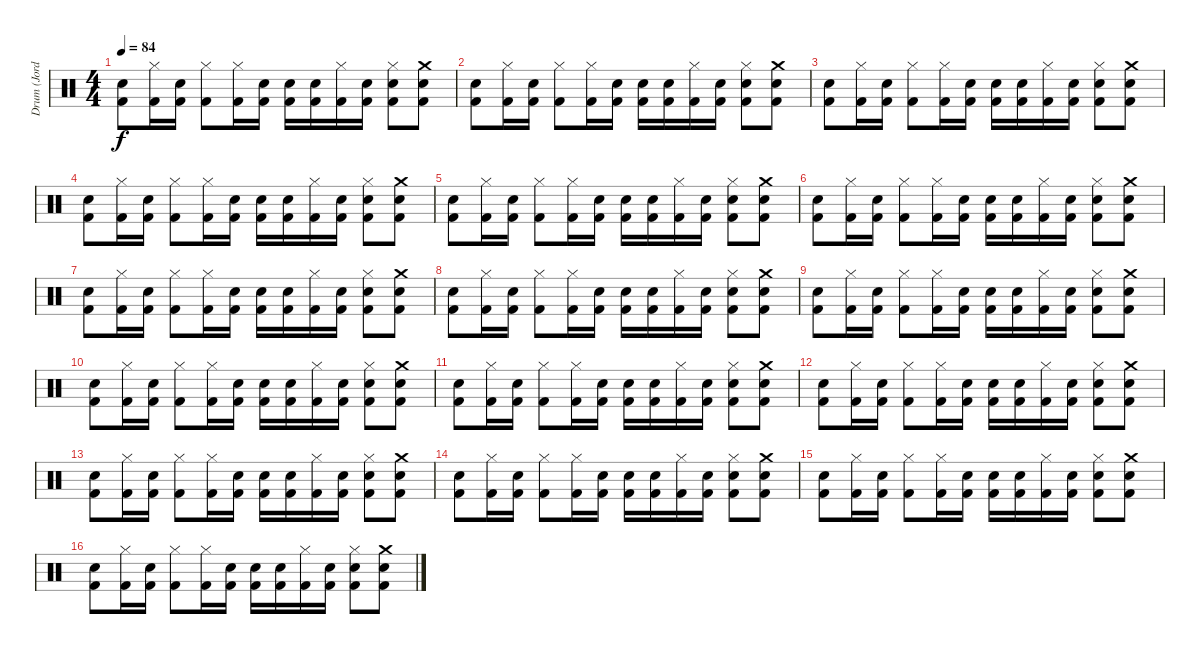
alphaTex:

\track ("Drum (Jordan)" "Drum (Jord") {instrument percussion}
\staff {score}
\articulation defaults
\ts (4 4)
\tempo 84
\clef neutral
\ks c
("Kick (hit) 2" "Electric Snare (hit)").8{dy f} ("Kick (hit) 2" "Hi-Hat (closed)").16 ("Kick (hit) 2" "Electric Snare (hit)").16 ("Kick (hit) 2" "Hi-Hat (closed)").8 ("Kick (hit) 2" "Hi-Hat (closed)").16 ("Kick (hit) 2" "Electric Snare (hit)").16 ("Kick (hit) 2" "Electric Snare (hit)").16 ("Kick (hit) 2" "Electric Snare (hit)").16 ("Kick (hit) 2" "Hi-Hat (closed)").16 ("Kick (hit) 2" "Electric Snare (hit)").16 ("Kick (hit) 2" "Electric Snare (hit)" "Hi-Hat (closed)").8 ("Kick (hit) 2" "Electric Snare (hit)" "Crash medium (hit)").8 |
("Kick (hit) 2" "Electric Snare (hit)").8 ("Kick (hit) 2" "Hi-Hat (closed)").16 ("Kick (hit) 2" "Electric Snare (hit)").16 ("Kick (hit) 2" "Hi-Hat (closed)").8 ("Kick (hit) 2" "Hi-Hat (closed)").16 ("Kick (hit) 2" "Electric Snare (hit)").16 ("Kick (hit) 2" "Electric Snare (hit)").16 ("Kick (hit) 2" "Electric Snare (hit)").16 ("Kick (hit) 2" "Hi-Hat (closed)").16 ("Kick (hit) 2" "Electric Snare (hit)").16 ("Kick (hit) 2" "Electric Snare (hit)" "Hi-Hat (closed)").8 ("Kick (hit) 2" "Electric Snare (hit)" "Crash medium (hit)").8 |
("Kick (hit) 2" "Electric Snare (hit)").8 ("Kick (hit) 2" "Hi-Hat (closed)").16 ("Kick (hit) 2" "Electric Snare (hit)").16 ("Kick (hit) 2" "Hi-Hat (closed)").8 ("Kick (hit) 2" "Hi-Hat (closed)").16 ("Kick (hit) 2" "Electric Snare (hit)").16 ("Kick (hit) 2" "Electric Snare (hit)").16 ("Kick (hit) 2" "Electric Snare (hit)").16 ("Kick (hit) 2" "Hi-Hat (closed)").16 ("Kick (hit) 2" "Electric Snare (hit)").16 ("Kick (hit) 2" "Electric Snare (hit)" "Hi-Hat (closed)").8 ("Kick (hit) 2" "Electric Snare (hit)" "Crash medium (hit)").8 |
("Kick (hit) 2" "Electric Snare (hit)").8 ("Kick (hit) 2" "Hi-Hat (closed)").16 ("Kick (hit) 2" "Electric Snare (hit)").16 ("Kick (hit) 2" "Hi-Hat (closed)").8 ("Kick (hit) 2" "Hi-Hat (closed)").16 ("Kick (hit) 2" "Electric Snare (hit)").16 ("Kick (hit) 2" "Electric Snare (hit)").16 ("Kick (hit) 2" "Electric Snare (hit)").16 ("Kick (hit) 2" "Hi-Hat (closed)").16 ("Kick (hit) 2" "Electric Snare (hit)").16 ("Kick (hit) 2" "Electric Snare (hit)" "Hi-Hat (closed)").8 ("Kick (hit) 2" "Electric Snare (hit)" "Crash medium (hit)").8 |
("Kick (hit) 2" "Electric Snare (hit)").8 ("Kick (hit) 2" "Hi-Hat (closed)").16 ("Kick (hit) 2" "Electric Snare (hit)").16 ("Kick (hit) 2" "Hi-Hat (closed)").8 ("Kick (hit) 2" "Hi-Hat (closed)").16 ("Kick (hit) 2" "Electric Snare (hit)").16 ("Kick (hit) 2" "Electric Snare (hit)").16 ("Kick (hit) 2" "Electric Snare (hit)").16 ("Kick (hit) 2" "Hi-Hat (closed)").16 ("Kick (hit) 2" "Electric Snare (hit)").16 ("Kick (hit) 2" "Electric Snare (hit)" "Hi-Hat (closed)").8 ("Kick (hit) 2" "Electric Snare (hit)" "Crash medium (hit)").8 |
("Kick (hit) 2" "Electric Snare (hit)").8 ("Kick (hit) 2" "Hi-Hat (closed)").16 ("Kick (hit) 2" "Electric Snare (hit)").16 ("Kick (hit) 2" "Hi-Hat (closed)").8 ("Kick (hit) 2" "Hi-Hat (closed)").16 ("Kick (hit) 2" "Electric Snare (hit)").16 ("Kick (hit) 2" "Electric Snare (hit)").16 ("Kick (hit) 2" "Electric Snare (hit)").16 ("Kick (hit) 2" "Hi-Hat (closed)").16 ("Kick (hit) 2" "Electric Snare (hit)").16 ("Kick (hit) 2" "Electric Snare (hit)" "Hi-Hat (closed)").8 ("Kick (hit) 2" "Electric Snare (hit)" "Crash medium (hit)").8 |
("Kick (hit) 2" "Electric Snare (hit)").8 ("Kick (hit) 2" "Hi-Hat (closed)").16 ("Kick (hit) 2" "Electric Snare (hit)").16 ("Kick (hit) 2" "Hi-Hat (closed)").8 ("Kick (hit) 2" "Hi-Hat (closed)").16 ("Kick (hit) 2" "Electric Snare (hit)").16 ("Kick (hit) 2" "Electric Snare (hit)").16 ("Kick (hit) 2" "Electric Snare (hit)").16 ("Kick (hit) 2" "Hi-Hat (closed)").16 ("Kick (hit) 2" "Electric Snare (hit)").16 ("Kick (hit) 2" "Electric Snare (hit)" "Hi-Hat (closed)").8 ("Kick (hit) 2" "Electric Snare (hit)" "Crash medium (hit)").8 |
("Kick (hit) 2" "Electric Snare (hit)").8 ("Kick (hit) 2" "Hi-Hat (closed)").16 ("Kick (hit) 2" "Electric Snare (hit)").16 ("Kick (hit) 2" "Hi-Hat (closed)").8 ("Kick (hit) 2" "Hi-Hat (closed)").16 ("Kick (hit) 2" "Electric Snare (hit)").16 ("Kick (hit) 2" "Electric Snare (hit)").16 ("Kick (hit) 2" "Electric Snare (hit)").16 ("Kick (hit) 2" "Hi-Hat (closed)").16 ("Kick (hit) 2" "Electric Snare (hit)").16 ("Kick (hit) 2" "Electric Snare (hit)" "Hi-Hat (closed)").8 ("Kick (hit) 2" "Electric Snare (hit)" "Crash medium (hit)").8 |
("Kick (hit) 2" "Electric Snare (hit)").8 ("Kick (hit) 2" "Hi-Hat (closed)").16 ("Kick (hit) 2" "Electric Snare (hit)").16 ("Kick (hit) 2" "Hi-Hat (closed)").8 ("Kick (hit) 2" "Hi-Hat (closed)").16 ("Kick (hit) 2" "Electric Snare (hit)").16 ("Kick (hit) 2" "Electric Snare (hit)").16 ("Kick (hit) 2" "Electric Snare (hit)").16 ("Kick (hit) 2" "Hi-Hat (closed)").16 ("Kick (hit) 2" "Electric Snare (hit)").16 ("Kick (hit) 2" "Electric Snare (hit)" "Hi-Hat (closed)").8 ("Kick (hit) 2" "Electric Snare (hit)" "Crash medium (hit)").8 |
("Kick (hit) 2" "Electric Snare (hit)").8 ("Kick (hit) 2" "Hi-Hat (closed)").16 ("Kick (hit) 2" "Electric Snare (hit)").16 ("Kick (hit) 2" "Hi-Hat (closed)").8 ("Kick (hit) 2" "Hi-Hat (closed)").16 ("Kick (hit) 2" "Electric Snare (hit)").16 ("Kick (hit) 2" "Electric Snare (hit)").16 ("Kick (hit) 2" "Electric Snare (hit)").16 ("Kick (hit) 2" "Hi-Hat (closed)").16 ("Kick (hit) 2" "Electric Snare (hit)").16 ("Kick (hit) 2" "Electric Snare (hit)" "Hi-Hat (closed)").8 ("Kick (hit) 2" "Electric Snare (hit)" "Crash medium (hit)").8 |
("Kick (hit) 2" "Electric Snare (hit)").8 ("Kick (hit) 2" "Hi-Hat (closed)").16 ("Kick (hit) 2" "Electric Snare (hit)").16 ("Kick (hit) 2" "Hi-Hat (closed)").8 ("Kick (hit) 2" "Hi-Hat (closed)").16 ("Kick (hit) 2" "Electric Snare (hit)").16 ("Kick (hit) 2" "Electric Snare (hit)").16 ("Kick (hit) 2" "Electric Snare (hit)").16 ("Kick (hit) 2" "Hi-Hat (closed)").16 ("Kick (hit) 2" "Electric Snare (hit)").16 ("Kick (hit) 2" "Electric Snare (hit)" "Hi-Hat (closed)").8 ("Kick (hit) 2" "Electric Snare (hit)" "Crash medium (hit)").8 |
("Kick (hit) 2" "Electric Snare (hit)").8 ("Kick (hit) 2" "Hi-Hat (closed)").16 ("Kick (hit) 2" "Electric Snare (hit)").16 ("Kick (hit) 2" "Hi-Hat (closed)").8 ("Kick (hit) 2" "Hi-Hat (closed)").16 ("Kick (hit) 2" "Electric Snare (hit)").16 ("Kick (hit) 2" "Electric Snare (hit)").16 ("Kick (hit) 2" "Electric Snare (hit)").16 ("Kick (hit) 2" "Hi-Hat (closed)").16 ("Kick (hit) 2" "Electric Snare (hit)").16 ("Kick (hit) 2" "Electric Snare (hit)" "Hi-Hat (closed)").8 ("Kick (hit) 2" "Electric Snare (hit)" "Crash medium (hit)").8 |
("Kick (hit) 2" "Electric Snare (hit)").8 ("Kick (hit) 2" "Hi-Hat (closed)").16 ("Kick (hit) 2" "Electric Snare (hit)").16 ("Kick (hit) 2" "Hi-Hat (closed)").8 ("Kick (hit) 2" "Hi-Hat (closed)").16 ("Kick (hit) 2" "Electric Snare (hit)").16 ("Kick (hit) 2" "Electric Snare (hit)").16 ("Kick (hit) 2" "Electric Snare (hit)").16 ("Kick (hit) 2" "Hi-Hat (closed)").16 ("Kick (hit) 2" "Electric Snare (hit)").16 ("Kick (hit) 2" "Electric Snare (hit)" "Hi-Hat (closed)").8 ("Kick (hit) 2" "Electric Snare (hit)" "Crash medium (hit)").8 |
("Kick (hit) 2" "Electric Snare (hit)").8 ("Kick (hit) 2" "Hi-Hat (closed)").16 ("Kick (hit) 2" "Electric Snare (hit)").16 ("Kick (hit) 2" "Hi-Hat (closed)").8 ("Kick (hit) 2" "Hi-Hat (closed)").16 ("Kick (hit) 2" "Electric Snare (hit)").16 ("Kick (hit) 2" "Electric Snare (hit)").16 ("Kick (hit) 2" "Electric Snare (hit)").16 ("Kick (hit) 2" "Hi-Hat (closed)").16 ("Kick (hit) 2" "Electric Snare (hit)").16 ("Kick (hit) 2" "Electric Snare (hit)" "Hi-Hat (closed)").8 ("Kick (hit) 2" "Electric Snare (hit)" "Crash medium (hit)").8 |
("Kick (hit) 2" "Electric Snare (hit)").8 ("Kick (hit) 2" "Hi-Hat (closed)").16 ("Kick (hit) 2" "Electric Snare (hit)").16 ("Kick (hit) 2" "Hi-Hat (closed)").8 ("Kick (hit) 2" "Hi-Hat (closed)").16 ("Kick (hit) 2" "Electric Snare (hit)").16 ("Kick (hit) 2" "Electric Snare (hit)").16 ("Kick (hit) 2" "Electric Snare (hit)").16 ("Kick (hit) 2" "Hi-Hat (closed)").16 ("Kick (hit) 2" "Electric Snare (hit)").16 ("Kick (hit) 2" "Electric Snare (hit)" "Hi-Hat (closed)").8 ("Kick (hit) 2" "Electric Snare (hit)" "Crash medium (hit)").8 |
("Kick (hit) 2" "Electric Snare (hit)").8 ("Kick (hit) 2" "Hi-Hat (closed)").16 ("Kick (hit) 2" "Electric Snare (hit)").16 ("Kick (hit) 2" "Hi-Hat (closed)").8 ("Kick (hit) 2" "Hi-Hat (closed)").16 ("Kick (hit) 2" "Electric Snare (hit)").16 ("Kick (hit) 2" "Electric Snare (hit)").16 ("Kick (hit) 2" "Electric Snare (hit)").16 ("Kick (hit) 2" "Hi-Hat (closed)").16 ("Kick (hit) 2" "Electric Snare (hit)").16 ("Kick (hit) 2" "Electric Snare (hit)" "Hi-Hat (closed)").8 ("Kick (hit) 2" "Electric Snare (hit)" "Crash medium (hit)").8
